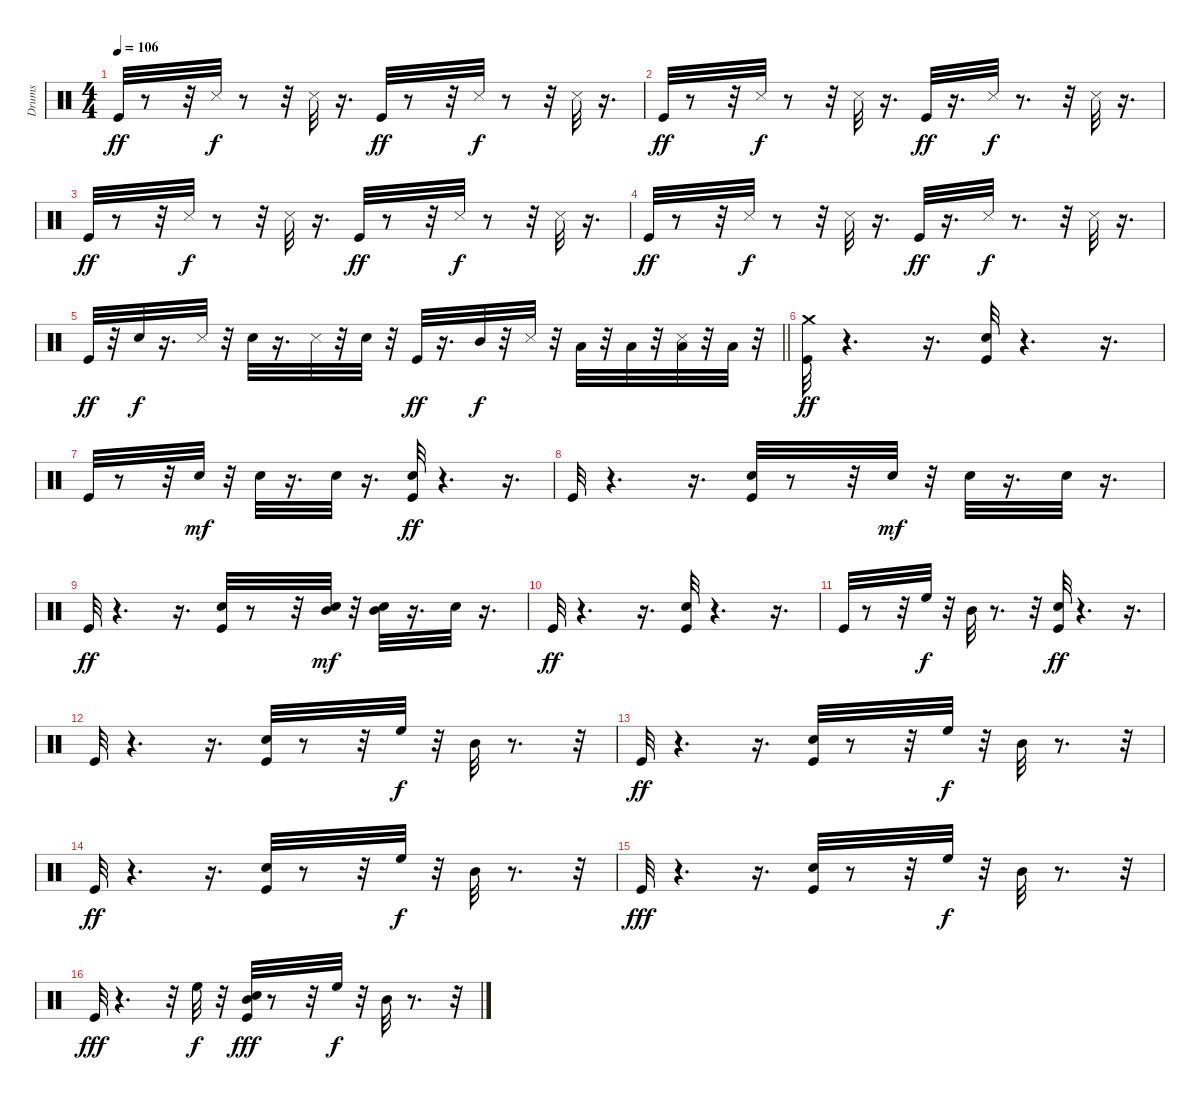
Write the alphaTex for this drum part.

\track ("Drums" "Drums") {instrument percussion}
\staff {score}
\articulation defaults
\ts (4 4)
\tempo 106
\clef neutral
\ks c "Kick (hit)".32{dy ff}
r.8 r.32 "Snare (side stick) 3".32{dy f} r.8 r.32 "Snare (side stick) 3".32 r.16{d} "Kick (hit)".32{dy ff} r.8 r.32 "Snare (side stick) 3".32{dy f} r.8 r.32 "Snare (side stick) 3".32 r.16{d} |
"Kick (hit)".32{dy ff} r.8 r.32 "Snare (side stick) 3".32{dy f} r.8 r.32 "Snare (side stick) 3".32 r.16{d} "Kick (hit)".32{dy ff} r.16{d} "Snare (side stick) 3".32{dy f} r.8{d} r.32 "Snare (side stick) 3".32 r.16{d} |
"Kick (hit)".32{dy ff} r.8 r.32 "Snare (side stick) 3".32{dy f} r.8 r.32 "Snare (side stick) 3".32 r.16{d} "Kick (hit)".32{dy ff} r.8 r.32 "Snare (side stick) 3".32{dy f} r.8 r.32 "Snare (side stick) 3".32 r.16{d} |
"Kick (hit)".32{dy ff} r.8 r.32 "Snare (side stick) 3".32{dy f} r.8 r.32 "Snare (side stick) 3".32 r.16{d} "Kick (hit)".32{dy ff} r.16{d} "Snare (side stick) 3".32{dy f} r.8{d} r.32 "Snare (side stick) 3".32 r.16{d} |
\barLineRight lightlight "Kick (hit)".32{dy ff}
r.32 "Snare (hit) 2".32{dy f} r.16{d} "Snare (side stick) 3".32 r.32 "Snare (hit) 2".32 r.16{d} "Snare (side stick) 3".32 r.32 "Snare (hit) 2".32 r.32 "Kick (hit)".32{dy ff} r.16{d} "Mid Tom (hit)".32{dy f} r.32 "Snare (side stick) 3".32 r.32 "Low Floor Tom (hit)".32 r.32 "Low Floor Tom (hit)".32 r.32 ("Snare (side stick) 3" "Low Floor Tom (hit)").32 r.32 "Low Floor Tom (hit)".32 r.32 |
("Kick (hit)" "Crash medium (hit)").32{dy ff} r.4{d} r.16{d} ("Kick (hit)" "Electric Snare (hit)").32 r.4{d} r.16{d} |
"Kick (hit)".32 r.8 r.32 "Snare (hit) 2".32{dy mf} r.32 "Snare (hit) 2".32 r.16{d} "Snare (hit) 2".32 r.16{d} ("Kick (hit)" "Electric Snare (hit)").32{dy ff} r.4{d} r.16{d} |
"Kick (hit)".32 r.4{d} r.16{d} ("Kick (hit)" "Electric Snare (hit)").32 r.8 r.32 "Snare (hit) 2".32{dy mf} r.32 "Snare (hit) 2".32 r.16{d} "Snare (hit) 2".32 r.16{d} |
"Kick (hit)".32{dy ff} r.4{d} r.16{d} ("Kick (hit)" "Electric Snare (hit)").32 r.8 r.32 ("Mid Tom (hit)" "Snare (hit) 2").32{dy mf} r.32 ("Mid Tom (hit)" "Snare (hit) 2").32 r.16{d} "Snare (hit) 2".32 r.16{d} |
"Kick (hit)".32{dy ff} r.4{d} r.16{d} ("Kick (hit)" "Electric Snare (hit)").32 r.4{d} r.16{d} |
"Kick (hit)".32 r.8 r.32 "High Floor Tom (hit)".32{dy f} r.32 "Mid Tom (hit)".32 r.8{d} r.32 ("Kick (hit)" "Electric Snare (hit)").32{dy ff} r.4{d} r.16{d} |
"Kick (hit)".32 r.4{d} r.16{d} ("Kick (hit)" "Electric Snare (hit)").32 r.8 r.32 "High Floor Tom (hit)".32{dy f} r.32 "Mid Tom (hit)".32 r.8{d} r.32 |
"Kick (hit)".32{dy ff} r.4{d} r.16{d} ("Kick (hit)" "Electric Snare (hit)").32 r.8 r.32 "High Floor Tom (hit)".32{dy f} r.32 "Mid Tom (hit)".32 r.8{d} r.32 |
"Kick (hit)".32{dy ff} r.4{d} r.16{d} ("Kick (hit)" "Electric Snare (hit)").32 r.8 r.32 "High Floor Tom (hit)".32{dy f} r.32 "Mid Tom (hit)".32 r.8{d} r.32 |
"Kick (hit)".32{dy fff} r.4{d} r.16{d} ("Kick (hit)" "Electric Snare (hit)").32 r.8 r.32 "High Floor Tom (hit)".32{dy f} r.32 "Mid Tom (hit)".32 r.8{d} r.32 |
"Kick (hit)".32{dy fff} r.4{d} r.32 "High Floor Tom (hit)".32{dy f} r.32 ("Mid Tom (hit)" "Kick (hit)" "Electric Snare (hit)").32{dy fff} r.8 r.32 "High Floor Tom (hit)".32{dy f} r.32 "Mid Tom (hit)".32 r.8{d} r.32
